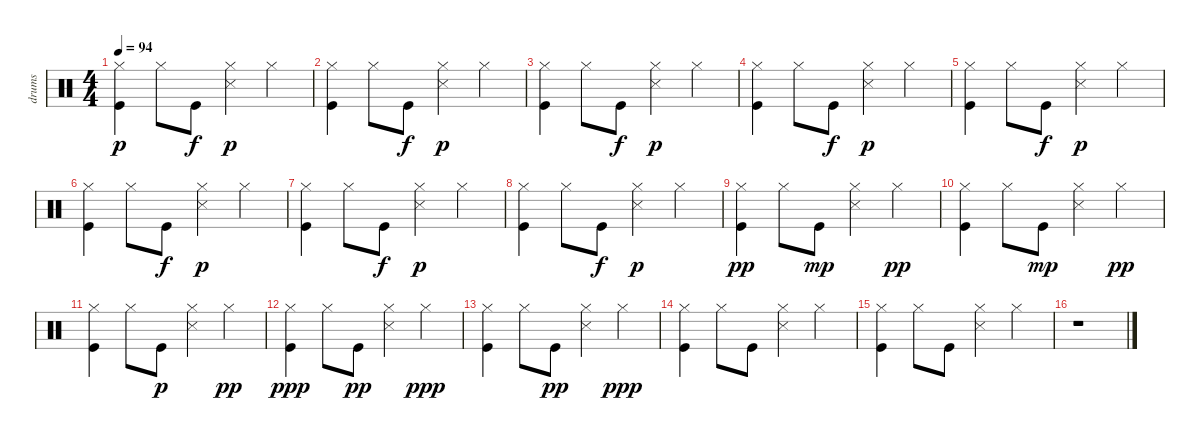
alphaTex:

\track ("drums" "drums") {instrument percussion}
\staff {score}
\articulation defaults
\ts (4 4)
\tempo 94
\clef neutral
\ks c
("Kick (hit)" "Hi-Hat (closed)").4{dy p} "Hi-Hat (closed)".8 "Kick (hit)".8{dy f} ("Hi-Hat (closed)" "Snare (side stick) 3").4{dy p} "Hi-Hat (closed)".4 |
("Kick (hit)" "Hi-Hat (closed)").4 "Hi-Hat (closed)".8 "Kick (hit)".8{dy f} ("Hi-Hat (closed)" "Snare (side stick) 3").4{dy p} "Hi-Hat (closed)".4 |
("Kick (hit)" "Hi-Hat (closed)").4 "Hi-Hat (closed)".8 "Kick (hit)".8{dy f} ("Hi-Hat (closed)" "Snare (side stick) 3").4{dy p} "Hi-Hat (closed)".4 |
("Kick (hit)" "Hi-Hat (closed)").4 "Hi-Hat (closed)".8 "Kick (hit)".8{dy f} ("Hi-Hat (closed)" "Snare (side stick) 3").4{dy p} "Hi-Hat (closed)".4 |
("Kick (hit)" "Hi-Hat (closed)").4 "Hi-Hat (closed)".8 "Kick (hit)".8{dy f} ("Hi-Hat (closed)" "Snare (side stick) 3").4{dy p} "Hi-Hat (closed)".4 |
("Kick (hit)" "Hi-Hat (closed)").4 "Hi-Hat (closed)".8 "Kick (hit)".8{dy f} ("Hi-Hat (closed)" "Snare (side stick) 3").4{dy p} "Hi-Hat (closed)".4 |
("Kick (hit)" "Hi-Hat (closed)").4 "Hi-Hat (closed)".8 "Kick (hit)".8{dy f} ("Hi-Hat (closed)" "Snare (side stick) 3").4{dy p} "Hi-Hat (closed)".4 |
("Kick (hit)" "Hi-Hat (closed)").4 "Hi-Hat (closed)".8 "Kick (hit)".8{dy f} ("Hi-Hat (closed)" "Snare (side stick) 3").4{dy p} "Hi-Hat (closed)".4 |
("Kick (hit)" "Hi-Hat (closed)").4{dy pp} "Hi-Hat (closed)".8 "Kick (hit)".8{dy mp} ("Hi-Hat (closed)" "Snare (side stick) 3").4 "Hi-Hat (closed)".4{dy pp} |
("Kick (hit)" "Hi-Hat (closed)").4 "Hi-Hat (closed)".8 "Kick (hit)".8{dy mp} ("Hi-Hat (closed)" "Snare (side stick) 3").4 "Hi-Hat (closed)".4{dy pp} |
("Kick (hit)" "Hi-Hat (closed)").4 "Hi-Hat (closed)".8 "Kick (hit)".8{dy p} ("Hi-Hat (closed)" "Snare (side stick) 3").4 "Hi-Hat (closed)".4{dy pp} |
("Kick (hit)" "Hi-Hat (closed)").4{dy ppp} "Hi-Hat (closed)".8 "Kick (hit)".8{dy pp} ("Hi-Hat (closed)" "Snare (side stick) 3").4 "Hi-Hat (closed)".4{dy ppp} |
("Kick (hit)" "Hi-Hat (closed)").4 "Hi-Hat (closed)".8 "Kick (hit)".8{dy pp} ("Hi-Hat (closed)" "Snare (side stick) 3").4 "Hi-Hat (closed)".4{dy ppp} |
("Kick (hit)" "Hi-Hat (closed)").4 "Hi-Hat (closed)".8 "Kick (hit)".8 ("Hi-Hat (closed)" "Snare (side stick) 3").4 "Hi-Hat (closed)".4 |
("Kick (hit)" "Hi-Hat (closed)").4 "Hi-Hat (closed)".8 "Kick (hit)".8 ("Hi-Hat (closed)" "Snare (side stick) 3").4 "Hi-Hat (closed)".4 |
r.1
